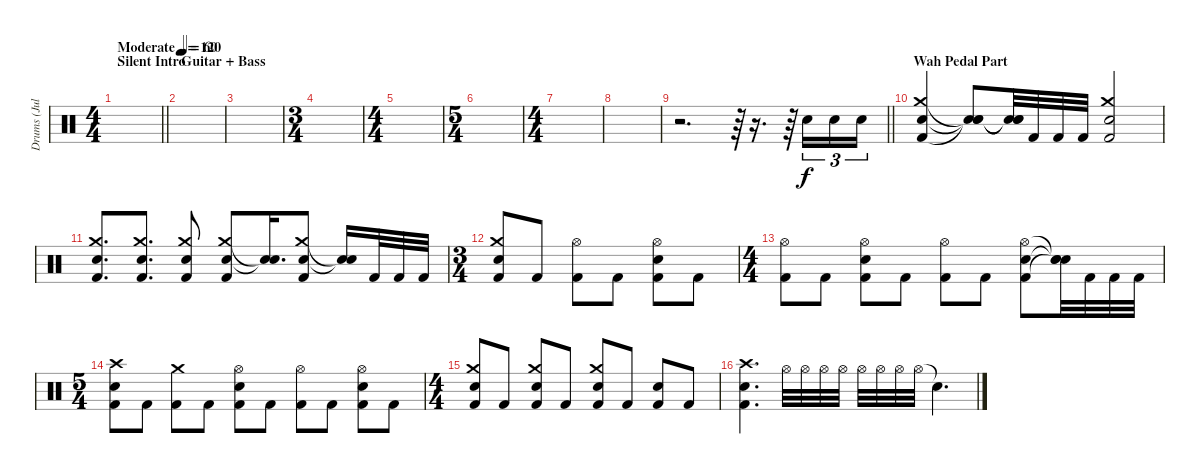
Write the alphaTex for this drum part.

\track ("Drums (Julian)" "Drums (Jul") {instrument percussion}
\staff {score}
\articulation defaults
\ts (4 4)
\section ("" "Silent Intro")
\tempo (60 "Moderate")
\clef neutral
\barLineRight lightlight
\ks c
|
\section ("" "Guitar + Bass")
\tempo 120
|
|
\ts (3 4)
|
\ts (4 4)
|
\ts (5 4)
|
\ts (4 4)
|
|
\barLineRight lightlight
r.2{d} r.64 r.16{d} r.64 "Snare (hit) 2".16{tu (3 2)} "Snare (hit) 2".16{tu (3 2)} "Snare (hit) 2".16{tu (3 2)} |
\section ("" "Wah Pedal Part")
("Crash medium (hit)" "Snare (hit) 2" "Kick (hit) 2").4 ("Snare (hit)"{t} "Snare (hit)"{t} "Snare (hit)"{t}).8 ("Snare (hit)"{t} "Snare (hit)"{t} "Snare (hit)"{t}).32 "Kick (hit) 2".32 "Kick (hit) 2".32 "Kick (hit) 2".32 ("Crash medium (hit)" "Snare (hit) 2" "Kick (hit) 2").2 |
("Crash medium (hit)" "Snare (hit) 2" "Kick (hit) 2").8{d} ("Crash medium (hit)" "Snare (hit) 2" "Kick (hit) 2").8{d} ("Crash medium (hit)" "Snare (hit) 2" "Kick (hit) 2").8 ("Crash medium (hit)" "Snare (hit) 2" "Kick (hit) 2").8 ("Snare (hit)"{t} "Snare (hit)"{t}).16{d} ("Crash medium (hit)" "Snare (hit) 2" "Kick (hit) 2").8 ("Snare (hit)"{t} "Snare (hit)"{t}).16 "Kick (hit) 2".32 "Kick (hit) 2".32 "Kick (hit) 2".32 |
\ts (3 4)
("Crash medium (hit)" "Snare (hit) 2" "Kick (hit) 2").8 "Kick (hit) 2".8 ("Hi-Hat (open)" "Kick (hit) 2").8 "Kick (hit) 2".8 ("Hi-Hat (open)" "Snare (hit) 2" "Kick (hit) 2").8 "Kick (hit) 2".8 |
\ts (4 4)
("Hi-Hat (open)" "Kick (hit) 2").8 "Kick (hit) 2".8 ("Hi-Hat (open)" "Snare (hit) 2" "Kick (hit) 2").8 "Kick (hit) 2".8 ("Hi-Hat (open)" "Kick (hit) 2").8 "Kick (hit) 2".8 ("Hi-Hat (open)" "Snare (hit) 2" "Kick (hit) 2").8 ("Snare (hit)"{t} "Snare (hit)"{t} "Snare (hit)"{t}).32 "Kick (hit) 2".32 "Kick (hit) 2".32 "Kick (hit) 2".32 |
\ts (5 4)
("Crash high (hit)" "Snare (hit) 2" "Kick (hit) 2").8 "Kick (hit) 2".8 ("Crash medium (hit)" "Kick (hit) 2").8 "Kick (hit) 2".8 ("Hi-Hat (open)" "Snare (hit) 2" "Kick (hit) 2").8 "Kick (hit) 2".8 ("Hi-Hat (open)" "Kick (hit) 2").8 "Kick (hit) 2".8 ("Hi-Hat (open)" "Snare (hit) 2" "Kick (hit) 2").8 "Kick (hit) 2".8 |
\ts (4 4)
("Crash medium (hit)" "Snare (hit) 2" "Kick (hit) 2").8 "Kick (hit) 2".8 ("Crash medium (hit)" "Snare (hit) 2" "Kick (hit) 2").8 "Kick (hit) 2".8 ("Crash medium (hit)" "Snare (hit) 2" "Kick (hit) 2").8 "Kick (hit) 2".8 ("Snare (hit) 2" "Kick (hit) 2").8 "Kick (hit) 2".8 |
("Crash high (hit)" "Snare (hit) 2" "Kick (hit) 2").4{d} "Hi-Hat (open)".32 "Hi-Hat (open)".32 "Hi-Hat (open)".32 "Hi-Hat (open)".32 "Hi-Hat (open)".32 "Hi-Hat (open)".32 "Hi-Hat (open)".32 "Hi-Hat (open)".32 "Snare (hit)"{t}.4{d}
